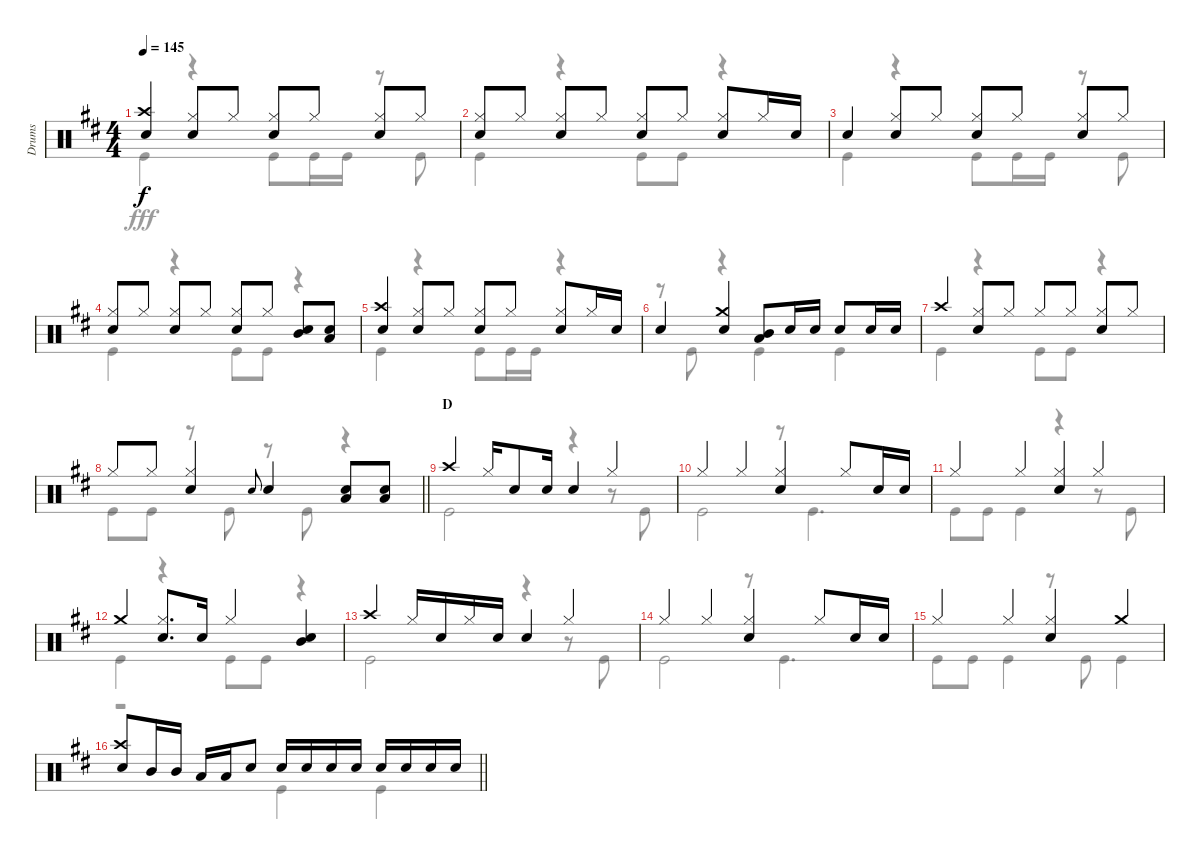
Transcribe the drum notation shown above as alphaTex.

\track ("Drums" "Drums") {instrument percussion}
\staff {score}
\articulation defaults
\voice
\ts (4 4)
\tempo 145
\clef neutral
\ks d
("Crash high (hit)" "Snare (hit) 2").4{dy f} ("Hi-Hat (closed)" "Snare (hit) 2").8 "Hi-Hat (closed)".8 ("Hi-Hat (closed)" "Snare (hit) 2").8 "Hi-Hat (closed)".8 ("Hi-Hat (closed)" "Snare (hit) 2").8 "Hi-Hat (closed)".8 |
("Hi-Hat (closed)" "Snare (hit) 2").8 "Hi-Hat (closed)".8 ("Hi-Hat (closed)" "Snare (hit) 2").8 "Hi-Hat (closed)".8 ("Hi-Hat (closed)" "Snare (hit) 2").8 "Hi-Hat (closed)".8 ("Hi-Hat (closed)" "Snare (hit) 2").8 "Hi-Hat (closed)".16 "Snare (hit) 2".16 |
"Snare (hit) 2".4 ("Hi-Hat (closed)" "Snare (hit) 2").8 "Hi-Hat (closed)".8 ("Hi-Hat (closed)" "Snare (hit) 2").8 "Hi-Hat (closed)".8 ("Hi-Hat (closed)" "Snare (hit) 2").8 "Hi-Hat (closed)".8 |
("Hi-Hat (closed)" "Snare (hit) 2").8 "Hi-Hat (closed)".8 ("Hi-Hat (closed)" "Snare (hit) 2").8 "Hi-Hat (closed)".8 ("Hi-Hat (closed)" "Snare (hit) 2").8 "Hi-Hat (closed)".8 ("Mid Tom (hit)" "Snare (hit) 2").8 ("Low Tom (hit)" "Snare (hit) 2").8 |
("Crash high (hit)" "Snare (hit) 2").4 ("Hi-Hat (closed)" "Snare (hit) 2").8 "Hi-Hat (closed)".8 ("Hi-Hat (closed)" "Snare (hit) 2").8 "Hi-Hat (closed)".8 ("Hi-Hat (closed)" "Snare (hit) 2").8 "Hi-Hat (closed)".16 "Snare (hit) 2".16 |
"Snare (hit) 2".4 ("Crash medium (hit)" "Snare (hit) 2").4 ("Mid Tom (hit)" "Low Tom (hit)").8 "Snare (hit) 2".16 "Snare (hit) 2".16 "Snare (hit) 2".8 "Snare (hit) 2".16 "Snare (hit) 2".16 |
"Crash high (hit)".4 ("Hi-Hat (closed)" "Snare (hit) 2").8 "Hi-Hat (closed)".8 "Hi-Hat (closed)".8 "Hi-Hat (closed)".8 ("Hi-Hat (closed)" "Snare (hit) 2").8 "Hi-Hat (closed)".8 |
\barLineRight lightlight "Hi-Hat (closed)".8 "Hi-Hat (closed)".8
("Hi-Hat (closed)" "Snare (hit) 2").4 "Snare (hit) 2".8{gr onbeat} "Snare (hit) 2".4 ("Snare (hit) 2" "Low Tom (hit)").8 ("Snare (hit) 2" "Low Tom (hit)").8 |
\section ("" "D")
"Crash high (hit)".4 "Hi-Hat (closed)".16 "Snare (hit) 2".8 "Snare (hit) 2".16 "Snare (hit) 2".4 "Hi-Hat (closed)".4 |
"Hi-Hat (closed)".4 "Hi-Hat (closed)".4 ("Hi-Hat (closed)" "Snare (hit) 2").4 "Hi-Hat (closed)".8 "Snare (hit) 2".16 "Snare (hit) 2".16 |
"Hi-Hat (closed)".4 "Hi-Hat (closed)".4 ("Hi-Hat (closed)" "Snare (hit) 2").4 "Hi-Hat (closed)".4 |
"Crash medium (hit)".4 ("Hi-Hat (closed)" "Snare (hit) 2").8{d} "Snare (hit) 2".16 "Hi-Hat (closed)".4 ("Mid Tom (hit)" "Snare (hit) 2").4 |
"Crash high (hit)".4 "Hi-Hat (closed)".16 "Snare (hit) 2".16 "Hi-Hat (closed)".16 "Snare (hit) 2".16 "Snare (hit) 2".4 "Hi-Hat (closed)".4 |
"Hi-Hat (closed)".4 "Hi-Hat (closed)".4 ("Hi-Hat (closed)" "Snare (hit) 2").4 "Hi-Hat (closed)".8 "Snare (hit) 2".16 "Snare (hit) 2".16 |
"Hi-Hat (closed)".4 "Hi-Hat (closed)".4 ("Hi-Hat (closed)" "Snare (hit) 2").4 "Crash medium (hit)".4 |
\barLineRight lightlight
("Crash high (hit)" "Snare (hit) 2").8 "Mid Tom (hit)".16 "Mid Tom (hit)".16 "Low Tom (hit)".16 "Low Tom (hit)".16 "Snare (hit) 2".8 "Snare (hit) 2".16 "Snare (hit) 2".16 "Snare (hit) 2".16 "Snare (hit) 2".16 "Snare (hit) 2".16 "Snare (hit) 2".16 "Snare (hit) 2".16 "Snare (hit) 2".16
\voice
\clef neutral
\ottava regular
\simile none
\ks d "Kick (hit)".4{dy fff}
r.4 "Kick (hit)".8 "Kick (hit)".16 "Kick (hit)".16 r.8 "Kick (hit)".8 |
"Kick (hit)".4 r.4 "Kick (hit)".8 "Kick (hit)".8 r.4 |
"Kick (hit)".4 r.4 "Kick (hit)".8 "Kick (hit)".16 "Kick (hit)".16 r.8 "Kick (hit)".8 |
"Kick (hit)".4 r.4 "Kick (hit)".8 "Kick (hit)".8 r.4 |
"Kick (hit)".4 r.4 "Kick (hit)".8 "Kick (hit)".16 "Kick (hit)".16 r.4 |
r.8 "Kick (hit)".8 r.4 "Kick (hit)".4 "Kick (hit)".4 |
"Kick (hit)".4 r.4 "Kick (hit)".8 "Kick (hit)".8 r.4 |
\barLineRight lightlight "Kick (hit)".8 "Kick (hit)".8
r.8 "Kick (hit)".8 r.8 "Kick (hit)".8 r.4 |
"Kick (hit)".2 r.4 r.8 "Kick (hit)".8 |
"Kick (hit)".2 r.8 "Kick (hit)".4{d} |
"Kick (hit)".8 "Kick (hit)".8 "Kick (hit)".4 r.4 r.8 "Kick (hit)".8 |
"Kick (hit)".4 r.4 "Kick (hit)".8 "Kick (hit)".8 r.4 |
"Kick (hit)".2 r.4 r.8 "Kick (hit)".8 |
"Kick (hit)".2 r.8 "Kick (hit)".4{d} |
"Kick (hit)".8 "Kick (hit)".8 "Kick (hit)".4 r.8 "Kick (hit)".8 "Kick (hit)".4 |
\barLineRight lightlight
r.2 "Kick (hit)".4 "Kick (hit)".4
